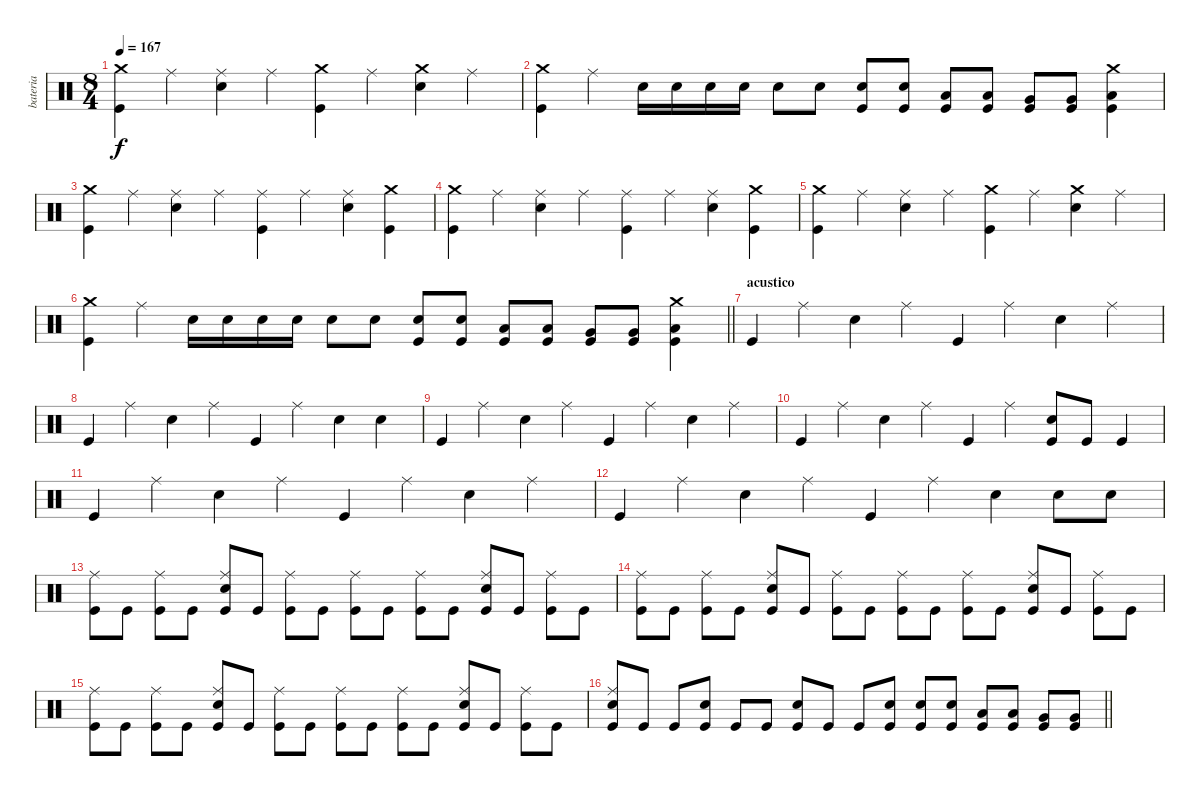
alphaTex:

\track ("bateria" "bateria") {instrument percussion}
\staff {score}
\articulation defaults
\ts (8 4)
\tempo 167
\clef neutral
\ks c
("Crash medium (hit)" "Kick (hit)").4{dy f} "Ride (middle)".4 ("Ride (middle)" "Snare (hit) 2").4 "Ride (middle)".4 ("Crash medium (hit)" "Kick (hit)").4 "Ride (middle)".4 ("Crash medium (hit)" "Snare (hit) 2").4 "Ride (middle)".4 |
("Crash medium (hit)" "Kick (hit)").4 "Ride (middle)".4 "Snare (hit) 2".16 "Snare (hit) 2".16 "Snare (hit) 2".16 "Snare (hit) 2".16 "Snare (hit) 2".8 "Snare (hit) 2".8 ("Snare (hit) 2" "Kick (hit)").8 ("Snare (hit) 2" "Kick (hit)").8 ("Low Floor Tom (hit)" "Kick (hit)").8 ("Low Floor Tom (hit)" "Kick (hit)").8 ("Very Low Tom (hit)" "Kick (hit)").8 ("Very Low Tom (hit)" "Kick (hit)").8 ("Crash medium (hit)" "Low Tom (hit)" "Kick (hit)").4 |
("Crash medium (hit)" "Kick (hit)").4 "Ride (middle)".4 ("Ride (middle)" "Snare (hit) 2").4 "Ride (middle)".4 ("Ride (middle)" "Kick (hit)").4 "Ride (middle)".4 ("Ride (middle)" "Snare (hit) 2").4 ("Crash medium (hit)" "Kick (hit)").4 |
("Crash medium (hit)" "Kick (hit)").4 "Ride (middle)".4 ("Ride (middle)" "Snare (hit) 2").4 "Ride (middle)".4 ("Ride (middle)" "Kick (hit)").4 "Ride (middle)".4 ("Ride (middle)" "Snare (hit) 2").4 ("Crash medium (hit)" "Kick (hit)").4 |
("Crash medium (hit)" "Kick (hit)").4 "Ride (middle)".4 ("Ride (middle)" "Snare (hit) 2").4 "Ride (middle)".4 ("Crash medium (hit)" "Kick (hit)").4 "Ride (middle)".4 ("Crash medium (hit)" "Snare (hit) 2").4 "Ride (middle)".4 |
\barLineRight lightlight
("Crash medium (hit)" "Kick (hit)").4 "Ride (middle)".4 "Snare (hit) 2".16 "Snare (hit) 2".16 "Snare (hit) 2".16 "Snare (hit) 2".16 "Snare (hit) 2".8 "Snare (hit) 2".8 ("Snare (hit) 2" "Kick (hit)").8 ("Snare (hit) 2" "Kick (hit)").8 ("Low Floor Tom (hit)" "Kick (hit)").8 ("Low Floor Tom (hit)" "Kick (hit)").8 ("Very Low Tom (hit)" "Kick (hit)").8 ("Very Low Tom (hit)" "Kick (hit)").8 ("Crash medium (hit)" "Low Tom (hit)" "Kick (hit)").4 |
\section ("" "acustico")
"Kick (hit)".4 "Ride (middle)".4 "Snare (hit) 2".4 "Ride (middle)".4 "Kick (hit)".4 "Ride (middle)".4 "Snare (hit) 2".4 "Ride (middle)".4 |
"Kick (hit)".4 "Ride (middle)".4 "Snare (hit) 2".4 "Ride (middle)".4 "Kick (hit)".4 "Ride (middle)".4 "Snare (hit) 2".4 "Snare (hit) 2".4 |
"Kick (hit)".4 "Ride (middle)".4 "Snare (hit) 2".4 "Ride (middle)".4 "Kick (hit)".4 "Ride (middle)".4 "Snare (hit) 2".4 "Ride (middle)".4 |
"Kick (hit)".4 "Ride (middle)".4 "Snare (hit) 2".4 "Ride (middle)".4 "Kick (hit)".4 "Ride (middle)".4 ("Snare (hit) 2" "Kick (hit)").8 "Kick (hit)".8 "Kick (hit)".4 |
"Kick (hit)".4 "Ride (middle)".4 "Snare (hit) 2".4 "Ride (middle)".4 "Kick (hit)".4 "Ride (middle)".4 "Snare (hit) 2".4 "Ride (middle)".4 |
"Kick (hit)".4 "Ride (middle)".4 "Snare (hit) 2".4 "Ride (middle)".4 "Kick (hit)".4 "Ride (middle)".4 "Snare (hit) 2".4 "Snare (hit) 2".8 "Snare (hit) 2".8 |
("Ride (middle)" "Kick (hit)").8 "Kick (hit)".8 ("Ride (middle)" "Kick (hit)").8 "Kick (hit)".8 ("Ride (middle)" "Snare (hit) 2" "Kick (hit)").8 "Kick (hit)".8 ("Ride (middle)" "Kick (hit)").8 "Kick (hit)".8 ("Ride (middle)" "Kick (hit)").8 "Kick (hit)".8 ("Ride (middle)" "Kick (hit)").8 "Kick (hit)".8 ("Ride (middle)" "Snare (hit) 2" "Kick (hit)").8 "Kick (hit)".8 ("Ride (middle)" "Kick (hit)").8 "Kick (hit)".8 |
("Ride (middle)" "Kick (hit)").8 "Kick (hit)".8 ("Ride (middle)" "Kick (hit)").8 "Kick (hit)".8 ("Ride (middle)" "Snare (hit) 2" "Kick (hit)").8 "Kick (hit)".8 ("Ride (middle)" "Kick (hit)").8 "Kick (hit)".8 ("Ride (middle)" "Kick (hit)").8 "Kick (hit)".8 ("Ride (middle)" "Kick (hit)").8 "Kick (hit)".8 ("Ride (middle)" "Snare (hit) 2" "Kick (hit)").8 "Kick (hit)".8 ("Ride (middle)" "Kick (hit)").8 "Kick (hit)".8 |
("Ride (middle)" "Kick (hit)").8 "Kick (hit)".8 ("Ride (middle)" "Kick (hit)").8 "Kick (hit)".8 ("Ride (middle)" "Snare (hit) 2" "Kick (hit)").8 "Kick (hit)".8 ("Ride (middle)" "Kick (hit)").8 "Kick (hit)".8 ("Ride (middle)" "Kick (hit)").8 "Kick (hit)".8 ("Ride (middle)" "Kick (hit)").8 "Kick (hit)".8 ("Ride (middle)" "Snare (hit) 2" "Kick (hit)").8 "Kick (hit)".8 ("Ride (middle)" "Kick (hit)").8 "Kick (hit)".8 |
\barLineRight lightlight
("Ride (middle)" "Snare (hit) 2" "Kick (hit)").8 "Kick (hit)".8 "Kick (hit)".8 ("Snare (hit) 2" "Kick (hit)").8 "Kick (hit)".8 "Kick (hit)".8 ("Snare (hit) 2" "Kick (hit)").8 "Kick (hit)".8 "Kick (hit)".8 ("Snare (hit) 2" "Kick (hit)").8 ("Snare (hit) 2" "Kick (hit)").8 ("Snare (hit) 2" "Kick (hit)").8 ("Low Floor Tom (hit)" "Kick (hit)").8 ("Low Floor Tom (hit)" "Kick (hit)").8 ("Very Low Tom (hit)" "Kick (hit)").8 ("Very Low Tom (hit)" "Kick (hit)").8
